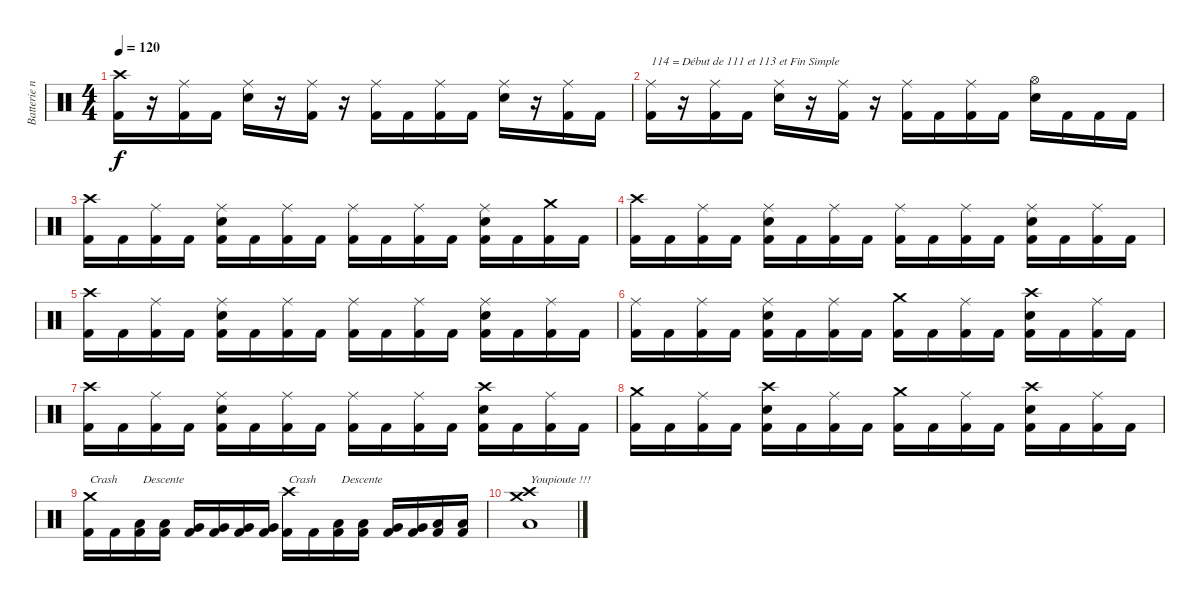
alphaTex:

\track ("Batterie n°3" "Batterie n") {instrument percussion}
\staff {score}
\articulation defaults
\ts (4 4)
\tempo 120
\clef neutral
\ks c
("Crash high (hit)" "Kick (hit) 2").16{dy f} r.16 ("Ride (middle)" "Kick (hit) 2").16 "Kick (hit) 2".16 ("Ride (middle)" "Snare (hit) 2").16 r.16 ("Ride (middle)" "Kick (hit) 2").16 r.16 ("Ride (middle)" "Kick (hit) 2").16 "Kick (hit) 2".16 ("Ride (middle)" "Kick (hit) 2").16 "Kick (hit) 2".16 ("Ride (middle)" "Snare (hit) 2").16 r.16 ("Ride (middle)" "Kick (hit) 2").16 "Kick (hit) 2".16 |
("Ride (middle)" "Kick (hit) 2").16{txt "114 = Début de 111 et 113 et Fin Simple"} r.16 ("Ride (middle)" "Kick (hit) 2").16 "Kick (hit) 2".16 ("Ride (middle)" "Snare (hit) 2").16 r.16 ("Ride (middle)" "Kick (hit) 2").16 r.16 ("Ride (middle)" "Kick (hit) 2").16 "Kick (hit) 2".16 ("Ride (middle)" "Kick (hit) 2").16 "Kick (hit) 2".16 ("Hi-Hat (open)" "Snare (hit) 2").16 "Kick (hit) 2".16 "Kick (hit) 2".16 "Kick (hit) 2".16 |
("Crash high (hit)" "Kick (hit) 2").16 "Kick (hit) 2".16 ("Ride (middle)" "Kick (hit) 2").16 "Kick (hit) 2".16 ("Ride (middle)" "Snare (hit) 2" "Kick (hit) 2").16 "Kick (hit) 2".16 ("Ride (middle)" "Kick (hit) 2").16 "Kick (hit) 2".16 ("Ride (middle)" "Kick (hit) 2").16 "Kick (hit) 2".16 ("Ride (middle)" "Kick (hit) 2").16 "Kick (hit) 2".16 ("Ride (middle)" "Snare (hit) 2" "Kick (hit) 2").16 "Kick (hit) 2".16 ("Crash medium (hit)" "Kick (hit) 2").16 "Kick (hit) 2".16 |
("Crash high (hit)" "Kick (hit) 2").16 "Kick (hit) 2".16 ("Ride (middle)" "Kick (hit) 2").16 "Kick (hit) 2".16 ("Ride (middle)" "Snare (hit) 2" "Kick (hit) 2").16 "Kick (hit) 2".16 ("Ride (middle)" "Kick (hit) 2").16 "Kick (hit) 2".16 ("Ride (middle)" "Kick (hit) 2").16 "Kick (hit) 2".16 ("Ride (middle)" "Kick (hit) 2").16 "Kick (hit) 2".16 ("Ride (middle)" "Snare (hit) 2" "Kick (hit) 2").16 "Kick (hit) 2".16 ("Ride (middle)" "Kick (hit) 2").16 "Kick (hit) 2".16 |
("Crash high (hit)" "Kick (hit) 2").16 "Kick (hit) 2".16 ("Ride (middle)" "Kick (hit) 2").16 "Kick (hit) 2".16 ("Ride (middle)" "Snare (hit) 2" "Kick (hit) 2").16 "Kick (hit) 2".16 ("Ride (middle)" "Kick (hit) 2").16 "Kick (hit) 2".16 ("Ride (middle)" "Kick (hit) 2").16 "Kick (hit) 2".16 ("Ride (middle)" "Kick (hit) 2").16 "Kick (hit) 2".16 ("Ride (middle)" "Snare (hit) 2" "Kick (hit) 2").16 "Kick (hit) 2".16 ("Ride (middle)" "Kick (hit) 2").16 "Kick (hit) 2".16 |
("Ride (middle)" "Kick (hit) 2").16 "Kick (hit) 2".16 ("Ride (middle)" "Kick (hit) 2").16 "Kick (hit) 2".16 ("Ride (middle)" "Snare (hit) 2" "Kick (hit) 2").16 "Kick (hit) 2".16 ("Ride (middle)" "Kick (hit) 2").16 "Kick (hit) 2".16 ("Crash medium (hit)" "Kick (hit) 2").16 "Kick (hit) 2".16 ("Ride (middle)" "Kick (hit) 2").16 "Kick (hit) 2".16 ("Crash high (hit)" "Snare (hit) 2" "Kick (hit) 2").16 "Kick (hit) 2".16 ("Ride (middle)" "Kick (hit) 2").16 "Kick (hit) 2".16 |
("Crash high (hit)" "Kick (hit) 2").16 "Kick (hit) 2".16 ("Ride (middle)" "Kick (hit) 2").16 "Kick (hit) 2".16 ("Ride (middle)" "Snare (hit) 2" "Kick (hit) 2").16 "Kick (hit) 2".16 ("Ride (middle)" "Kick (hit) 2").16 "Kick (hit) 2".16 ("Ride (middle)" "Kick (hit) 2").16 "Kick (hit) 2".16 ("Ride (middle)" "Kick (hit) 2").16 "Kick (hit) 2".16 ("Crash high (hit)" "Snare (hit) 2" "Kick (hit) 2").16 "Kick (hit) 2".16 ("Ride (middle)" "Kick (hit) 2").16 "Kick (hit) 2".16 |
("Crash medium (hit)" "Kick (hit) 2").16 "Kick (hit) 2".16 ("Ride (middle)" "Kick (hit) 2").16 "Kick (hit) 2".16 ("Crash high (hit)" "Snare (hit) 2" "Kick (hit) 2").16 "Kick (hit) 2".16 ("Ride (middle)" "Kick (hit) 2").16 "Kick (hit) 2".16 ("Crash medium (hit)" "Kick (hit) 2").16 "Kick (hit) 2".16 ("Ride (middle)" "Kick (hit) 2").16 "Kick (hit) 2".16 ("Crash high (hit)" "Snare (hit) 2" "Kick (hit) 2").16 "Kick (hit) 2".16 ("Ride (middle)" "Kick (hit) 2").16 "Kick (hit) 2".16 |
("Crash medium (hit)" "Kick (hit) 2").16{txt "Crash"} "Kick (hit) 2".16 ("Low Tom (hit)" "Kick (hit) 2").16{txt " Descente"} ("Low Tom (hit)" "Kick (hit) 2").16 ("Very Low Tom (hit)" "Kick (hit) 2").16 ("Very Low Tom (hit)" "Kick (hit) 2").16 ("Very Low Tom (hit)" "Kick (hit) 2").16 ("Very Low Tom (hit)" "Kick (hit) 2").16 ("Crash high (hit)" "Kick (hit) 2").16{txt "Crash"} "Kick (hit) 2".16 ("Low Tom (hit)" "Kick (hit) 2").16{txt " Descente"} ("Low Tom (hit)" "Kick (hit) 2").16 ("Very Low Tom (hit)" "Kick (hit) 2").16 ("Very Low Tom (hit)" "Kick (hit) 2").16 ("Low Floor Tom (hit)" "Kick (hit) 2").16 ("Low Floor Tom (hit)" "Kick (hit) 2").16 |
("Crash medium (hit)" "Crash high (hit)" "Low Floor Tom (hit)").1{txt "Youpioute !!!"}
